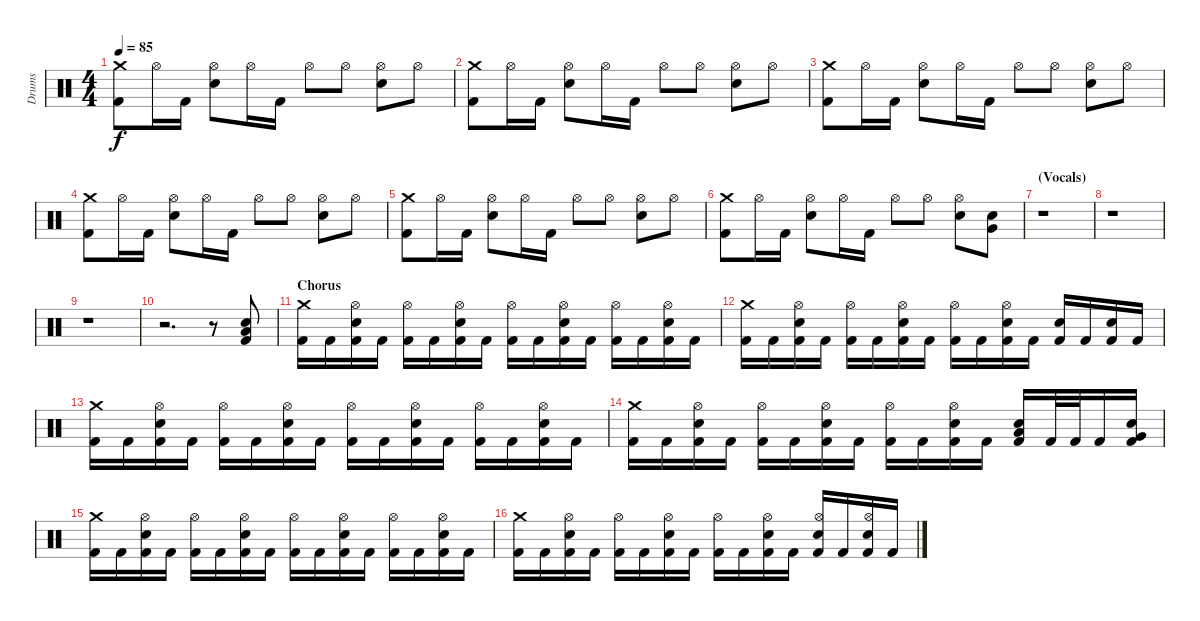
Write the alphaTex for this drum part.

\track ("Drums" "Drums") {instrument percussion}
\staff {score}
\articulation defaults
\ts (4 4)
\tempo 85
\clef neutral
\ks c
("Crash medium (hit)" "Kick (hit) 2").8{dy f} "Hi-Hat (open)".16 "Kick (hit) 2".16 ("Hi-Hat (open)" "Electric Snare (hit)").8 "Hi-Hat (open)".16 "Kick (hit) 2".16 "Hi-Hat (open)".8 "Hi-Hat (open)".8 ("Hi-Hat (open)" "Electric Snare (hit)").8 "Hi-Hat (open)".8 |
("Crash medium (hit)" "Kick (hit) 2").8 "Hi-Hat (open)".16 "Kick (hit) 2".16 ("Hi-Hat (open)" "Electric Snare (hit)").8 "Hi-Hat (open)".16 "Kick (hit) 2".16 "Hi-Hat (open)".8 "Hi-Hat (open)".8 ("Hi-Hat (open)" "Electric Snare (hit)").8 "Hi-Hat (open)".8 |
("Crash medium (hit)" "Kick (hit) 2").8 "Hi-Hat (open)".16 "Kick (hit) 2".16 ("Hi-Hat (open)" "Electric Snare (hit)").8 "Hi-Hat (open)".16 "Kick (hit) 2".16 "Hi-Hat (open)".8 "Hi-Hat (open)".8 ("Hi-Hat (open)" "Electric Snare (hit)").8 "Hi-Hat (open)".8 |
("Crash medium (hit)" "Kick (hit) 2").8 "Hi-Hat (open)".16 "Kick (hit) 2".16 ("Hi-Hat (open)" "Electric Snare (hit)").8 "Hi-Hat (open)".16 "Kick (hit) 2".16 "Hi-Hat (open)".8 "Hi-Hat (open)".8 ("Hi-Hat (open)" "Electric Snare (hit)").8 "Hi-Hat (open)".8 |
("Crash medium (hit)" "Kick (hit) 2").8 "Hi-Hat (open)".16 "Kick (hit) 2".16 ("Hi-Hat (open)" "Electric Snare (hit)").8 "Hi-Hat (open)".16 "Kick (hit) 2".16 "Hi-Hat (open)".8 "Hi-Hat (open)".8 ("Hi-Hat (open)" "Electric Snare (hit)").8 "Hi-Hat (open)".8 |
("Crash medium (hit)" "Kick (hit) 2").8 "Hi-Hat (open)".16 "Kick (hit) 2".16 ("Hi-Hat (open)" "Electric Snare (hit)").8 "Hi-Hat (open)".16 "Kick (hit) 2".16 "Hi-Hat (open)".8 "Hi-Hat (open)".8 ("Hi-Hat (open)" "Electric Snare (hit)").8 ("Electric Snare (hit)" "Very Low Tom (hit)").8 |
\section ("" "(Vocals)")
r.1 |
r.1 |
r.1 |
r.2{d} r.8 ("Electric Snare (hit)" "Low Tom (hit)" "Kick (hit) 2").8 |
\section ("" "Chorus")
("Crash medium (hit)" "Kick (hit) 2").16 "Kick (hit) 2".16 ("Hi-Hat (open)" "Electric Snare (hit)" "Kick (hit) 2").16 "Kick (hit) 2".16 ("Hi-Hat (open)" "Kick (hit) 2").16 "Kick (hit) 2".16 ("Hi-Hat (open)" "Electric Snare (hit)" "Kick (hit) 2").16 "Kick (hit) 2".16 ("Hi-Hat (open)" "Kick (hit) 2").16 "Kick (hit) 2".16 ("Hi-Hat (open)" "Electric Snare (hit)" "Kick (hit) 2").16 "Kick (hit) 2".16 ("Hi-Hat (open)" "Kick (hit) 2").16 "Kick (hit) 2".16 ("Hi-Hat (open)" "Electric Snare (hit)" "Kick (hit) 2").16 "Kick (hit) 2".16 |
("Crash medium (hit)" "Kick (hit) 2").16 "Kick (hit) 2".16 ("Hi-Hat (open)" "Electric Snare (hit)" "Kick (hit) 2").16 "Kick (hit) 2".16 ("Hi-Hat (open)" "Kick (hit) 2").16 "Kick (hit) 2".16 ("Hi-Hat (open)" "Electric Snare (hit)" "Kick (hit) 2").16 "Kick (hit) 2".16 ("Hi-Hat (open)" "Kick (hit) 2").16 "Kick (hit) 2".16 ("Hi-Hat (open)" "Electric Snare (hit)" "Kick (hit) 2").16 "Kick (hit) 2".16 ("Electric Snare (hit)" "Kick (hit) 2").16 "Kick (hit) 2".16 ("Electric Snare (hit)" "Kick (hit) 2").16 "Kick (hit) 2".16 |
("Crash medium (hit)" "Kick (hit) 2").16 "Kick (hit) 2".16 ("Hi-Hat (open)" "Electric Snare (hit)" "Kick (hit) 2").16 "Kick (hit) 2".16 ("Hi-Hat (open)" "Kick (hit) 2").16 "Kick (hit) 2".16 ("Hi-Hat (open)" "Electric Snare (hit)" "Kick (hit) 2").16 "Kick (hit) 2".16 ("Hi-Hat (open)" "Kick (hit) 2").16 "Kick (hit) 2".16 ("Hi-Hat (open)" "Electric Snare (hit)" "Kick (hit) 2").16 "Kick (hit) 2".16 ("Hi-Hat (open)" "Kick (hit) 2").16 "Kick (hit) 2".16 ("Hi-Hat (open)" "Electric Snare (hit)" "Kick (hit) 2").16 "Kick (hit) 2".16 |
("Crash medium (hit)" "Kick (hit) 2").16 "Kick (hit) 2".16 ("Hi-Hat (open)" "Electric Snare (hit)" "Kick (hit) 2").16 "Kick (hit) 2".16 ("Hi-Hat (open)" "Kick (hit) 2").16 "Kick (hit) 2".16 ("Hi-Hat (open)" "Electric Snare (hit)" "Kick (hit) 2").16 "Kick (hit) 2".16 ("Hi-Hat (open)" "Kick (hit) 2").16 "Kick (hit) 2".16 ("Hi-Hat (open)" "Electric Snare (hit)" "Kick (hit) 2").16 "Kick (hit) 2".16 ("Electric Snare (hit)" "Low Tom (hit)" "Kick (hit) 2").16 "Kick (hit) 2".32 "Kick (hit) 2".32 "Kick (hit) 2".16 ("Electric Snare (hit)" "Very Low Tom (hit)" "Kick (hit) 2").16 |
("Crash medium (hit)" "Kick (hit) 2").16 "Kick (hit) 2".16 ("Hi-Hat (open)" "Electric Snare (hit)" "Kick (hit) 2").16 "Kick (hit) 2".16 ("Hi-Hat (open)" "Kick (hit) 2").16 "Kick (hit) 2".16 ("Hi-Hat (open)" "Electric Snare (hit)" "Kick (hit) 2").16 "Kick (hit) 2".16 ("Hi-Hat (open)" "Kick (hit) 2").16 "Kick (hit) 2".16 ("Hi-Hat (open)" "Electric Snare (hit)" "Kick (hit) 2").16 "Kick (hit) 2".16 ("Hi-Hat (open)" "Kick (hit) 2").16 "Kick (hit) 2".16 ("Hi-Hat (open)" "Electric Snare (hit)" "Kick (hit) 2").16 "Kick (hit) 2".16 |
("Crash medium (hit)" "Kick (hit) 2").16 "Kick (hit) 2".16 ("Hi-Hat (open)" "Electric Snare (hit)" "Kick (hit) 2").16 "Kick (hit) 2".16 ("Hi-Hat (open)" "Kick (hit) 2").16 "Kick (hit) 2".16 ("Hi-Hat (open)" "Electric Snare (hit)" "Kick (hit) 2").16 "Kick (hit) 2".16 ("Hi-Hat (open)" "Kick (hit) 2").16 "Kick (hit) 2".16 ("Hi-Hat (open)" "Electric Snare (hit)" "Kick (hit) 2").16 "Kick (hit) 2".16 ("Hi-Hat (open)" "Electric Snare (hit)" "Kick (hit) 2").16 "Kick (hit) 2".16 ("Hi-Hat (open)" "Electric Snare (hit)" "Kick (hit) 2").16 "Kick (hit) 2".16
